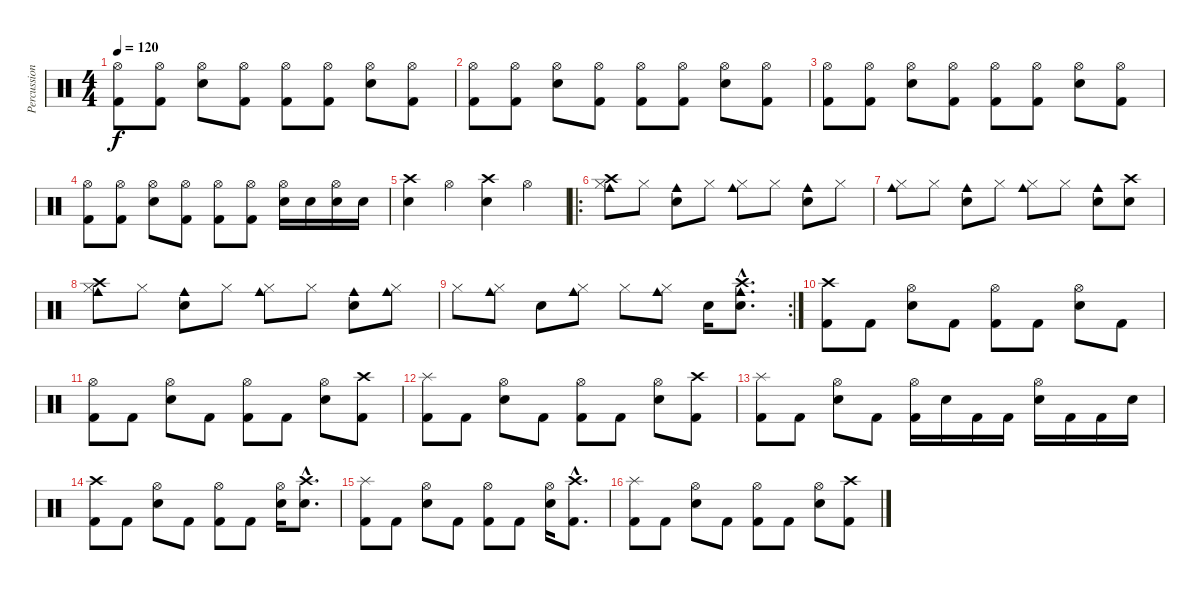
\track ("Percussion" "Percussion") {instrument percussion}
\staff {score}
\articulation defaults
\ts (4 4)
\tempo 120
\clef neutral
\ks c
("Hi-Hat (open)" "Kick (hit) 2").8{dy f volume 0} ("Hi-Hat (open)" "Kick (hit) 2").8{volume 1} ("Hi-Hat (open)" "Electric Snare (hit)").8{volume 2} ("Hi-Hat (open)" "Kick (hit) 2").8{volume 3} ("Hi-Hat (open)" "Kick (hit) 2").8{volume 4} ("Hi-Hat (open)" "Kick (hit) 2").8{volume 5} ("Hi-Hat (open)" "Electric Snare (hit)").8{volume 6} ("Hi-Hat (open)" "Kick (hit) 2").8{volume 7} |
("Hi-Hat (open)" "Kick (hit) 2").8{volume 16} ("Hi-Hat (open)" "Kick (hit) 2").8 ("Hi-Hat (open)" "Electric Snare (hit)").8 ("Hi-Hat (open)" "Kick (hit) 2").8 ("Hi-Hat (open)" "Kick (hit) 2").8 ("Hi-Hat (open)" "Kick (hit) 2").8 ("Hi-Hat (open)" "Electric Snare (hit)").8 ("Hi-Hat (open)" "Kick (hit) 2").8 |
("Hi-Hat (open)" "Kick (hit) 2").8 ("Hi-Hat (open)" "Kick (hit) 2").8 ("Hi-Hat (open)" "Electric Snare (hit)").8 ("Hi-Hat (open)" "Kick (hit) 2").8 ("Hi-Hat (open)" "Kick (hit) 2").8 ("Hi-Hat (open)" "Kick (hit) 2").8 ("Hi-Hat (open)" "Electric Snare (hit)").8 ("Hi-Hat (open)" "Kick (hit) 2").8 |
("Hi-Hat (open)" "Kick (hit) 2").8 ("Hi-Hat (open)" "Kick (hit) 2").8 ("Hi-Hat (open)" "Electric Snare (hit)").8 ("Hi-Hat (open)" "Kick (hit) 2").8 ("Hi-Hat (open)" "Kick (hit) 2").8 ("Hi-Hat (open)" "Kick (hit) 2").8 ("Hi-Hat (open)" "Electric Snare (hit)").16 "Electric Snare (hit)".16 ("Hi-Hat (open)" "Electric Snare (hit)").16 "Electric Snare (hit)".16 |
("Crash high (hit)" "Electric Snare (hit)").4 "Hi-Hat (open)".4 ("Crash high (hit)" "Electric Snare (hit)").4 "Hi-Hat (open)".4 |
\ro
("Crash high (hit)" "Hi-Hat (closed)" "Cowbell medium (hit)").8 "Hi-Hat (closed)".8 ("Electric Snare (hit)" "Cowbell medium (hit)").8 "Hi-Hat (closed)".8 ("Hi-Hat (closed)" "Cowbell medium (hit)").8 "Hi-Hat (closed)".8 ("Electric Snare (hit)" "Cowbell medium (hit)").8 "Hi-Hat (closed)".8 |
("Hi-Hat (closed)" "Cowbell medium (hit)").8 "Hi-Hat (closed)".8 ("Electric Snare (hit)" "Cowbell medium (hit)").8 "Hi-Hat (closed)".8 ("Hi-Hat (closed)" "Cowbell medium (hit)").8 "Hi-Hat (closed)".8 ("Electric Snare (hit)" "Cowbell medium (hit)").8 ("Crash high (hit)" "Electric Snare (hit)").8 |
("Crash high (hit)" "Hi-Hat (closed)" "Cowbell medium (hit)").8 "Hi-Hat (closed)".8 ("Electric Snare (hit)" "Cowbell medium (hit)").8 "Hi-Hat (closed)".8 ("Hi-Hat (closed)" "Cowbell medium (hit)").8 "Hi-Hat (closed)".8 ("Electric Snare (hit)" "Cowbell medium (hit)").8 ("Hi-Hat (closed)" "Cowbell medium (hit)").8 |
\rc 2 "Hi-Hat (closed)".8
("Hi-Hat (closed)" "Cowbell medium (hit)").8 "Electric Snare (hit)".8 ("Hi-Hat (closed)" "Cowbell medium (hit)").8 "Hi-Hat (closed)".8 ("Hi-Hat (closed)" "Cowbell medium (hit)").8 "Electric Snare (hit)".16 ("Crash high (hit)"{hac} "Electric Snare (hit)"{hac} "Cowbell medium (hit)"{hac}).8{d} |
("Crash high (hit)" "Kick (hit) 2").8 "Kick (hit) 2".8 ("Hi-Hat (open)" "Electric Snare (hit)").8 "Kick (hit) 2".8 ("Hi-Hat (open)" "Kick (hit) 2").8 "Kick (hit) 2".8 ("Hi-Hat (open)" "Electric Snare (hit)").8 "Kick (hit) 2".8 |
("Hi-Hat (open)" "Kick (hit) 2").8 "Kick (hit) 2".8 ("Hi-Hat (open)" "Electric Snare (hit)").8 "Kick (hit) 2".8 ("Hi-Hat (open)" "Kick (hit) 2").8 "Kick (hit) 2".8 ("Hi-Hat (open)" "Electric Snare (hit)").8 ("Crash high (hit)" "Kick (hit) 2").8 |
("Splash (hit)" "Kick (hit) 2").8 "Kick (hit) 2".8 ("Hi-Hat (open)" "Electric Snare (hit)").8 "Kick (hit) 2".8 ("Hi-Hat (open)" "Kick (hit) 2").8 "Kick (hit) 2".8 ("Hi-Hat (open)" "Electric Snare (hit)").8 ("Crash high (hit)" "Kick (hit) 2").8 |
("Splash (hit)" "Kick (hit) 2").8 "Kick (hit) 2".8 ("Hi-Hat (open)" "Electric Snare (hit)").8 "Kick (hit) 2".8 ("Hi-Hat (open)" "Kick (hit) 2").16 "Electric Snare (hit)".16 "Kick (hit) 2".16 "Kick (hit) 2".16 ("Hi-Hat (open)" "Electric Snare (hit)").16 "Kick (hit) 2".16 "Kick (hit) 2".16 "Electric Snare (hit)".16 |
("Crash high (hit)" "Kick (hit) 2").8 "Kick (hit) 2".8 ("Hi-Hat (open)" "Electric Snare (hit)").8 "Kick (hit) 2".8 ("Hi-Hat (open)" "Kick (hit) 2").8 "Kick (hit) 2".8 ("Hi-Hat (open)" "Electric Snare (hit)").16 ("Crash high (hit)"{hac} "Electric Snare (hit)"{hac}).8{d} |
("Splash (hit)" "Kick (hit) 2").8 "Kick (hit) 2".8 ("Hi-Hat (open)" "Electric Snare (hit)").8 "Kick (hit) 2".8 ("Hi-Hat (open)" "Kick (hit) 2").8 "Kick (hit) 2".8 ("Hi-Hat (open)" "Electric Snare (hit)").16 ("Crash high (hit)"{hac} "Kick (hit) 2"{hac}).8{d} |
("Splash (hit)" "Kick (hit) 2").8 "Kick (hit) 2".8 ("Hi-Hat (open)" "Electric Snare (hit)").8 "Kick (hit) 2".8 ("Hi-Hat (open)" "Kick (hit) 2").8 "Kick (hit) 2".8 ("Hi-Hat (open)" "Electric Snare (hit)").8 ("Crash high (hit)" "Kick (hit) 2").8
